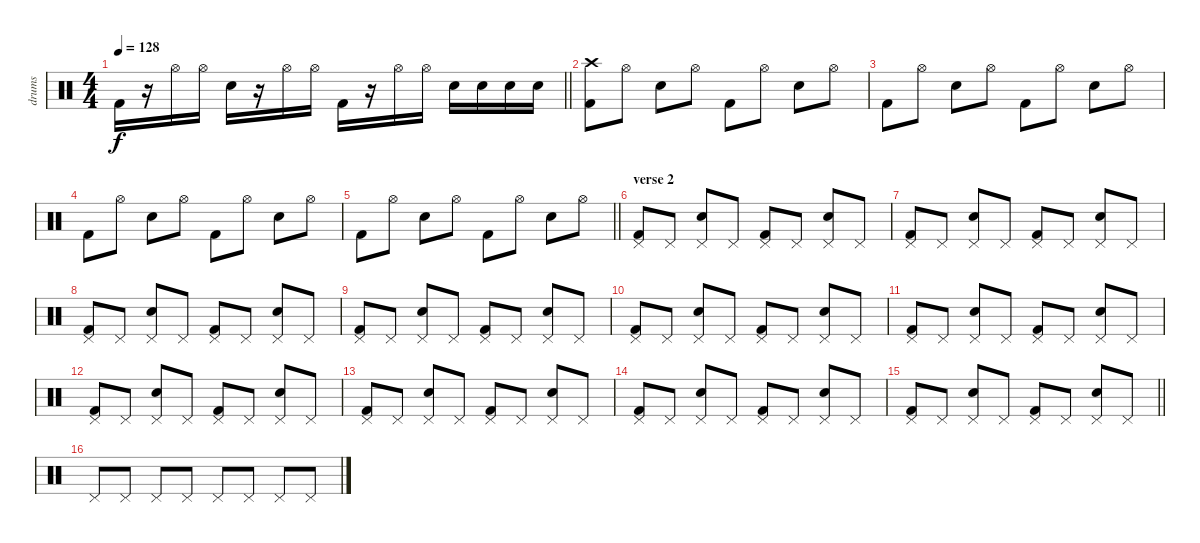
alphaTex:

\track ("drums" "drums") {instrument percussion}
\staff {score}
\articulation defaults
\ts (4 4)
\tempo 128
\clef neutral
\barLineRight lightlight
\ks c "Kick (hit) 2".16{dy f}
r.16 "Hi-Hat (open)".16 "Hi-Hat (open)".16 "Electric Snare (hit)".16 r.16 "Hi-Hat (open)".16 "Hi-Hat (open)".16 "Kick (hit) 2".16 r.16 "Hi-Hat (open)".16 "Hi-Hat (open)".16 "Electric Snare (hit)".16 "Electric Snare (hit)".16 "Electric Snare (hit)".16 "Electric Snare (hit)".16 |
("Kick (hit) 2" "Crash high (hit)").8 "Hi-Hat (open)".8 "Electric Snare (hit)".8 "Hi-Hat (open)".8 "Kick (hit) 2".8 "Hi-Hat (open)".8 "Electric Snare (hit)".8 "Hi-Hat (open)".8 |
"Kick (hit) 2".8 "Hi-Hat (open)".8 "Electric Snare (hit)".8 "Hi-Hat (open)".8 "Kick (hit) 2".8 "Hi-Hat (open)".8 "Electric Snare (hit)".8 "Hi-Hat (open)".8 |
"Kick (hit) 2".8 "Hi-Hat (open)".8 "Electric Snare (hit)".8 "Hi-Hat (open)".8 "Kick (hit) 2".8 "Hi-Hat (open)".8 "Electric Snare (hit)".8 "Hi-Hat (open)".8 |
\barLineRight lightlight "Kick (hit) 2".8 "Hi-Hat (open)".8 "Electric Snare (hit)".8 "Hi-Hat (open)".8 "Kick (hit) 2".8 "Hi-Hat (open)".8 "Electric Snare (hit)".8 "Hi-Hat (open)".8
|
\section ("" "verse 2")
("Kick (hit) 2" "Pedal Hi-Hat (hit)").8 "Pedal Hi-Hat (hit)".8 ("Electric Snare (hit)" "Pedal Hi-Hat (hit)").8 "Pedal Hi-Hat (hit)".8 ("Kick (hit) 2" "Pedal Hi-Hat (hit)").8 "Pedal Hi-Hat (hit)".8 ("Electric Snare (hit)" "Pedal Hi-Hat (hit)").8 "Pedal Hi-Hat (hit)".8 |
("Kick (hit) 2" "Pedal Hi-Hat (hit)").8 "Pedal Hi-Hat (hit)".8 ("Electric Snare (hit)" "Pedal Hi-Hat (hit)").8 "Pedal Hi-Hat (hit)".8 ("Kick (hit) 2" "Pedal Hi-Hat (hit)").8 "Pedal Hi-Hat (hit)".8 ("Electric Snare (hit)" "Pedal Hi-Hat (hit)").8 "Pedal Hi-Hat (hit)".8 |
("Kick (hit) 2" "Pedal Hi-Hat (hit)").8 "Pedal Hi-Hat (hit)".8 ("Electric Snare (hit)" "Pedal Hi-Hat (hit)").8 "Pedal Hi-Hat (hit)".8 ("Kick (hit) 2" "Pedal Hi-Hat (hit)").8 "Pedal Hi-Hat (hit)".8 ("Electric Snare (hit)" "Pedal Hi-Hat (hit)").8 "Pedal Hi-Hat (hit)".8 |
("Kick (hit) 2" "Pedal Hi-Hat (hit)").8 "Pedal Hi-Hat (hit)".8 ("Electric Snare (hit)" "Pedal Hi-Hat (hit)").8 "Pedal Hi-Hat (hit)".8 ("Kick (hit) 2" "Pedal Hi-Hat (hit)").8 "Pedal Hi-Hat (hit)".8 ("Electric Snare (hit)" "Pedal Hi-Hat (hit)").8 "Pedal Hi-Hat (hit)".8 |
("Kick (hit) 2" "Pedal Hi-Hat (hit)").8 "Pedal Hi-Hat (hit)".8 ("Electric Snare (hit)" "Pedal Hi-Hat (hit)").8 "Pedal Hi-Hat (hit)".8 ("Kick (hit) 2" "Pedal Hi-Hat (hit)").8 "Pedal Hi-Hat (hit)".8 ("Electric Snare (hit)" "Pedal Hi-Hat (hit)").8 "Pedal Hi-Hat (hit)".8 |
("Kick (hit) 2" "Pedal Hi-Hat (hit)").8 "Pedal Hi-Hat (hit)".8 ("Electric Snare (hit)" "Pedal Hi-Hat (hit)").8 "Pedal Hi-Hat (hit)".8 ("Kick (hit) 2" "Pedal Hi-Hat (hit)").8 "Pedal Hi-Hat (hit)".8 ("Electric Snare (hit)" "Pedal Hi-Hat (hit)").8 "Pedal Hi-Hat (hit)".8 |
("Kick (hit) 2" "Pedal Hi-Hat (hit)").8 "Pedal Hi-Hat (hit)".8 ("Electric Snare (hit)" "Pedal Hi-Hat (hit)").8 "Pedal Hi-Hat (hit)".8 ("Kick (hit) 2" "Pedal Hi-Hat (hit)").8 "Pedal Hi-Hat (hit)".8 ("Electric Snare (hit)" "Pedal Hi-Hat (hit)").8 "Pedal Hi-Hat (hit)".8 |
("Kick (hit) 2" "Pedal Hi-Hat (hit)").8 "Pedal Hi-Hat (hit)".8 ("Electric Snare (hit)" "Pedal Hi-Hat (hit)").8 "Pedal Hi-Hat (hit)".8 ("Kick (hit) 2" "Pedal Hi-Hat (hit)").8 "Pedal Hi-Hat (hit)".8 ("Electric Snare (hit)" "Pedal Hi-Hat (hit)").8 "Pedal Hi-Hat (hit)".8 |
("Kick (hit) 2" "Pedal Hi-Hat (hit)").8 "Pedal Hi-Hat (hit)".8 ("Electric Snare (hit)" "Pedal Hi-Hat (hit)").8 "Pedal Hi-Hat (hit)".8 ("Kick (hit) 2" "Pedal Hi-Hat (hit)").8 "Pedal Hi-Hat (hit)".8 ("Electric Snare (hit)" "Pedal Hi-Hat (hit)").8 "Pedal Hi-Hat (hit)".8 |
\barLineRight lightlight
("Kick (hit) 2" "Pedal Hi-Hat (hit)").8 "Pedal Hi-Hat (hit)".8 ("Electric Snare (hit)" "Pedal Hi-Hat (hit)").8 "Pedal Hi-Hat (hit)".8 ("Kick (hit) 2" "Pedal Hi-Hat (hit)").8 "Pedal Hi-Hat (hit)".8 ("Electric Snare (hit)" "Pedal Hi-Hat (hit)").8 "Pedal Hi-Hat (hit)".8 |
"Pedal Hi-Hat (hit)".8 "Pedal Hi-Hat (hit)".8 "Pedal Hi-Hat (hit)".8 "Pedal Hi-Hat (hit)".8 "Pedal Hi-Hat (hit)".8 "Pedal Hi-Hat (hit)".8 "Pedal Hi-Hat (hit)".8 "Pedal Hi-Hat (hit)".8
